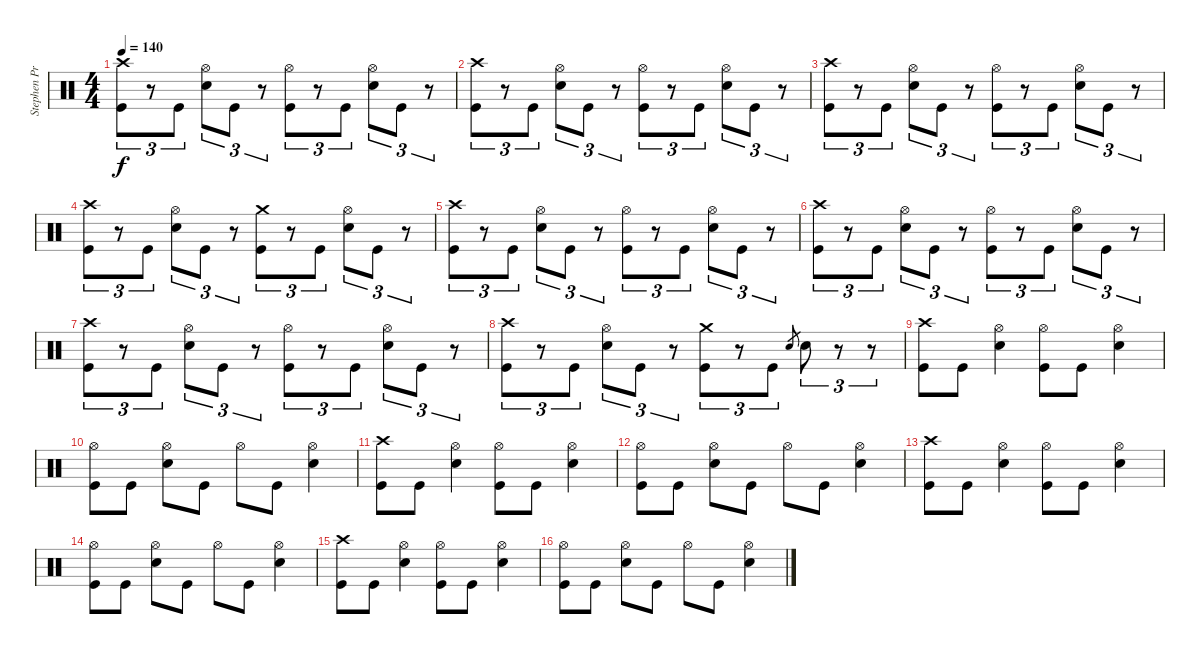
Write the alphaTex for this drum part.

\track ("Stephen Priestly-Drums" "Stephen Pr") {instrument percussion}
\staff {score}
\articulation defaults
\ts (4 4)
\tempo 140
\clef neutral
\ks c
("Crash high (hit)" "Kick (hit)").8{tu (3 2) dy f} r.8{tu (3 2)} "Kick (hit)".8{tu (3 2)} ("Hi-Hat (open)" "Snare (hit) 2").8{tu (3 2)} "Kick (hit)".8{tu (3 2)} r.8{tu (3 2)} ("Hi-Hat (open)" "Kick (hit)").8{tu (3 2)} r.8{tu (3 2)} "Kick (hit)".8{tu (3 2)} ("Hi-Hat (open)" "Snare (hit) 2").8{tu (3 2)} "Kick (hit)".8{tu (3 2)} r.8{tu (3 2)} |
("Crash high (hit)" "Kick (hit)").8{tu (3 2)} r.8{tu (3 2)} "Kick (hit)".8{tu (3 2)} ("Hi-Hat (open)" "Snare (hit) 2").8{tu (3 2)} "Kick (hit)".8{tu (3 2)} r.8{tu (3 2)} ("Hi-Hat (open)" "Kick (hit)").8{tu (3 2)} r.8{tu (3 2)} "Kick (hit)".8{tu (3 2)} ("Hi-Hat (open)" "Snare (hit) 2").8{tu (3 2)} "Kick (hit)".8{tu (3 2)} r.8{tu (3 2)} |
("Crash high (hit)" "Kick (hit)").8{tu (3 2)} r.8{tu (3 2)} "Kick (hit)".8{tu (3 2)} ("Hi-Hat (open)" "Snare (hit) 2").8{tu (3 2)} "Kick (hit)".8{tu (3 2)} r.8{tu (3 2)} ("Hi-Hat (open)" "Kick (hit)").8{tu (3 2)} r.8{tu (3 2)} "Kick (hit)".8{tu (3 2)} ("Hi-Hat (open)" "Snare (hit) 2").8{tu (3 2)} "Kick (hit)".8{tu (3 2)} r.8{tu (3 2)} |
("Crash high (hit)" "Kick (hit)").8{tu (3 2)} r.8{tu (3 2)} "Kick (hit)".8{tu (3 2)} ("Hi-Hat (open)" "Snare (hit) 2").8{tu (3 2)} "Kick (hit)".8{tu (3 2)} r.8{tu (3 2)} ("Crash medium (hit)" "Kick (hit)").8{tu (3 2)} r.8{tu (3 2)} "Kick (hit)".8{tu (3 2)} ("Hi-Hat (open)" "Snare (hit) 2").8{tu (3 2)} "Kick (hit)".8{tu (3 2)} r.8{tu (3 2)} |
("Crash high (hit)" "Kick (hit)").8{tu (3 2)} r.8{tu (3 2)} "Kick (hit)".8{tu (3 2)} ("Hi-Hat (open)" "Snare (hit) 2").8{tu (3 2)} "Kick (hit)".8{tu (3 2)} r.8{tu (3 2)} ("Hi-Hat (open)" "Kick (hit)").8{tu (3 2)} r.8{tu (3 2)} "Kick (hit)".8{tu (3 2)} ("Hi-Hat (open)" "Snare (hit) 2").8{tu (3 2)} "Kick (hit)".8{tu (3 2)} r.8{tu (3 2)} |
("Crash high (hit)" "Kick (hit)").8{tu (3 2)} r.8{tu (3 2)} "Kick (hit)".8{tu (3 2)} ("Hi-Hat (open)" "Snare (hit) 2").8{tu (3 2)} "Kick (hit)".8{tu (3 2)} r.8{tu (3 2)} ("Hi-Hat (open)" "Kick (hit)").8{tu (3 2)} r.8{tu (3 2)} "Kick (hit)".8{tu (3 2)} ("Hi-Hat (open)" "Snare (hit) 2").8{tu (3 2)} "Kick (hit)".8{tu (3 2)} r.8{tu (3 2)} |
("Crash high (hit)" "Kick (hit)").8{tu (3 2)} r.8{tu (3 2)} "Kick (hit)".8{tu (3 2)} ("Hi-Hat (open)" "Snare (hit) 2").8{tu (3 2)} "Kick (hit)".8{tu (3 2)} r.8{tu (3 2)} ("Hi-Hat (open)" "Kick (hit)").8{tu (3 2)} r.8{tu (3 2)} "Kick (hit)".8{tu (3 2)} ("Hi-Hat (open)" "Snare (hit) 2").8{tu (3 2)} "Kick (hit)".8{tu (3 2)} r.8{tu (3 2)} |
("Crash high (hit)" "Kick (hit)").8{tu (3 2)} r.8{tu (3 2)} "Kick (hit)".8{tu (3 2)} ("Hi-Hat (open)" "Snare (hit) 2").8{tu (3 2)} "Kick (hit)".8{tu (3 2)} r.8{tu (3 2)} ("Crash medium (hit)" "Kick (hit)").8{tu (3 2)} r.8{tu (3 2)} "Kick (hit)".8{tu (3 2)} "Snare (hit) 2".8{gr} "Snare (hit) 2".8{tu (3 2)} r.8{tu (3 2)} r.8{tu (3 2)} |
("Crash high (hit)" "Kick (hit)").8 "Kick (hit)".8 ("Hi-Hat (open)" "Snare (hit) 2").4 ("Hi-Hat (open)" "Kick (hit)").8 "Kick (hit)".8 ("Hi-Hat (open)" "Snare (hit) 2").4 |
("Hi-Hat (open)" "Kick (hit)").8 "Kick (hit)".8 ("Hi-Hat (open)" "Snare (hit) 2").8 "Kick (hit)".8 "Hi-Hat (open)".8 "Kick (hit)".8 ("Hi-Hat (open)" "Snare (hit) 2").4 |
("Crash high (hit)" "Kick (hit)").8 "Kick (hit)".8 ("Hi-Hat (open)" "Snare (hit) 2").4 ("Hi-Hat (open)" "Kick (hit)").8 "Kick (hit)".8 ("Hi-Hat (open)" "Snare (hit) 2").4 |
("Hi-Hat (open)" "Kick (hit)").8 "Kick (hit)".8 ("Hi-Hat (open)" "Snare (hit) 2").8 "Kick (hit)".8 "Hi-Hat (open)".8 "Kick (hit)".8 ("Hi-Hat (open)" "Snare (hit) 2").4 |
("Crash high (hit)" "Kick (hit)").8 "Kick (hit)".8 ("Hi-Hat (open)" "Snare (hit) 2").4 ("Hi-Hat (open)" "Kick (hit)").8 "Kick (hit)".8 ("Hi-Hat (open)" "Snare (hit) 2").4 |
("Hi-Hat (open)" "Kick (hit)").8 "Kick (hit)".8 ("Hi-Hat (open)" "Snare (hit) 2").8 "Kick (hit)".8 "Hi-Hat (open)".8 "Kick (hit)".8 ("Hi-Hat (open)" "Snare (hit) 2").4 |
("Crash high (hit)" "Kick (hit)").8 "Kick (hit)".8 ("Hi-Hat (open)" "Snare (hit) 2").4 ("Hi-Hat (open)" "Kick (hit)").8 "Kick (hit)".8 ("Hi-Hat (open)" "Snare (hit) 2").4 |
("Hi-Hat (open)" "Kick (hit)").8 "Kick (hit)".8 ("Hi-Hat (open)" "Snare (hit) 2").8 "Kick (hit)".8 "Hi-Hat (open)".8 "Kick (hit)".8 ("Hi-Hat (open)" "Snare (hit) 2").4
